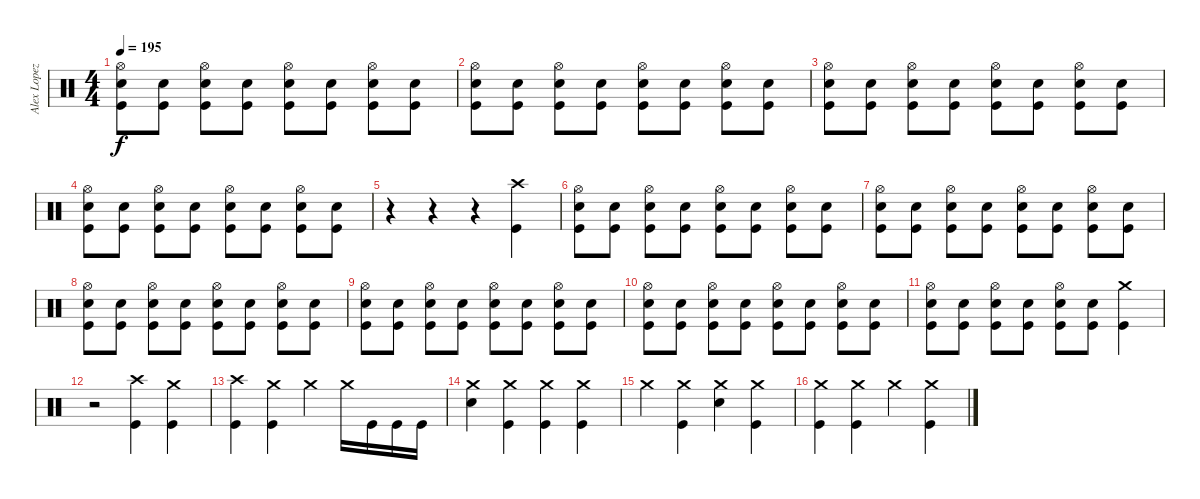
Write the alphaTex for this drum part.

\track ("Alex Lopez" "Alex Lopez") {instrument percussion}
\staff {score}
\articulation defaults
\ts (4 4)
\tempo 195
\clef neutral
\ks c
("Hi-Hat (open)" "Electric Snare (hit)" "Kick (hit)").8{dy f} ("Electric Snare (hit)" "Kick (hit)").8 ("Hi-Hat (open)" "Electric Snare (hit)" "Kick (hit)").8 ("Electric Snare (hit)" "Kick (hit)").8 ("Hi-Hat (open)" "Electric Snare (hit)" "Kick (hit)").8 ("Electric Snare (hit)" "Kick (hit)").8 ("Hi-Hat (open)" "Electric Snare (hit)" "Kick (hit)").8 ("Electric Snare (hit)" "Kick (hit)").8 |
("Hi-Hat (open)" "Electric Snare (hit)" "Kick (hit)").8 ("Electric Snare (hit)" "Kick (hit)").8 ("Hi-Hat (open)" "Electric Snare (hit)" "Kick (hit)").8 ("Electric Snare (hit)" "Kick (hit)").8 ("Hi-Hat (open)" "Electric Snare (hit)" "Kick (hit)").8 ("Electric Snare (hit)" "Kick (hit)").8 ("Hi-Hat (open)" "Electric Snare (hit)" "Kick (hit)").8 ("Electric Snare (hit)" "Kick (hit)").8 |
("Hi-Hat (open)" "Electric Snare (hit)" "Kick (hit)").8 ("Electric Snare (hit)" "Kick (hit)").8 ("Hi-Hat (open)" "Electric Snare (hit)" "Kick (hit)").8 ("Electric Snare (hit)" "Kick (hit)").8 ("Hi-Hat (open)" "Electric Snare (hit)" "Kick (hit)").8 ("Electric Snare (hit)" "Kick (hit)").8 ("Hi-Hat (open)" "Electric Snare (hit)" "Kick (hit)").8 ("Electric Snare (hit)" "Kick (hit)").8 |
("Hi-Hat (open)" "Electric Snare (hit)" "Kick (hit)").8 ("Electric Snare (hit)" "Kick (hit)").8 ("Hi-Hat (open)" "Electric Snare (hit)" "Kick (hit)").8 ("Electric Snare (hit)" "Kick (hit)").8 ("Hi-Hat (open)" "Electric Snare (hit)" "Kick (hit)").8 ("Electric Snare (hit)" "Kick (hit)").8 ("Hi-Hat (open)" "Electric Snare (hit)" "Kick (hit)").8 ("Electric Snare (hit)" "Kick (hit)").8 |
r.4 r.4 r.4 ("Crash high (hit)" "Kick (hit)").4 |
("Hi-Hat (open)" "Electric Snare (hit)" "Kick (hit)").8 ("Electric Snare (hit)" "Kick (hit)").8 ("Hi-Hat (open)" "Electric Snare (hit)" "Kick (hit)").8 ("Electric Snare (hit)" "Kick (hit)").8 ("Hi-Hat (open)" "Electric Snare (hit)" "Kick (hit)").8 ("Electric Snare (hit)" "Kick (hit)").8 ("Hi-Hat (open)" "Electric Snare (hit)" "Kick (hit)").8 ("Electric Snare (hit)" "Kick (hit)").8 |
("Hi-Hat (open)" "Electric Snare (hit)" "Kick (hit)").8 ("Electric Snare (hit)" "Kick (hit)").8 ("Hi-Hat (open)" "Electric Snare (hit)" "Kick (hit)").8 ("Electric Snare (hit)" "Kick (hit)").8 ("Hi-Hat (open)" "Electric Snare (hit)" "Kick (hit)").8 ("Electric Snare (hit)" "Kick (hit)").8 ("Hi-Hat (open)" "Electric Snare (hit)" "Kick (hit)").8 ("Electric Snare (hit)" "Kick (hit)").8 |
("Hi-Hat (open)" "Electric Snare (hit)" "Kick (hit)").8 ("Electric Snare (hit)" "Kick (hit)").8 ("Hi-Hat (open)" "Electric Snare (hit)" "Kick (hit)").8 ("Electric Snare (hit)" "Kick (hit)").8 ("Hi-Hat (open)" "Electric Snare (hit)" "Kick (hit)").8 ("Electric Snare (hit)" "Kick (hit)").8 ("Hi-Hat (open)" "Electric Snare (hit)" "Kick (hit)").8 ("Electric Snare (hit)" "Kick (hit)").8 |
("Hi-Hat (open)" "Electric Snare (hit)" "Kick (hit)").8 ("Electric Snare (hit)" "Kick (hit)").8 ("Hi-Hat (open)" "Electric Snare (hit)" "Kick (hit)").8 ("Electric Snare (hit)" "Kick (hit)").8 ("Hi-Hat (open)" "Electric Snare (hit)" "Kick (hit)").8 ("Electric Snare (hit)" "Kick (hit)").8 ("Hi-Hat (open)" "Electric Snare (hit)" "Kick (hit)").8 ("Electric Snare (hit)" "Kick (hit)").8 |
("Hi-Hat (open)" "Electric Snare (hit)" "Kick (hit)").8 ("Electric Snare (hit)" "Kick (hit)").8 ("Hi-Hat (open)" "Electric Snare (hit)" "Kick (hit)").8 ("Electric Snare (hit)" "Kick (hit)").8 ("Hi-Hat (open)" "Electric Snare (hit)" "Kick (hit)").8 ("Electric Snare (hit)" "Kick (hit)").8 ("Hi-Hat (open)" "Electric Snare (hit)" "Kick (hit)").8 ("Electric Snare (hit)" "Kick (hit)").8 |
("Hi-Hat (open)" "Electric Snare (hit)" "Kick (hit)").8 ("Electric Snare (hit)" "Kick (hit)").8 ("Hi-Hat (open)" "Electric Snare (hit)" "Kick (hit)").8 ("Electric Snare (hit)" "Kick (hit)").8 ("Hi-Hat (open)" "Electric Snare (hit)" "Kick (hit)").8 ("Electric Snare (hit)" "Kick (hit)").8 ("Crash medium (hit)" "Kick (hit)").4 |
r.2 ("Crash high (hit)" "Kick (hit)").4 ("Crash medium (hit)" "Kick (hit)").4 |
("Crash high (hit)" "Kick (hit)").4 ("Crash medium (hit)" "Kick (hit)").4 "Crash medium (hit)".4 "Crash medium (hit)".16 "Kick (hit)".16 "Kick (hit)".16 "Kick (hit)".16 |
("Crash medium (hit)" "Electric Snare (hit)").4 ("Crash medium (hit)" "Kick (hit)").4 ("Crash medium (hit)" "Kick (hit)").4 ("Crash medium (hit)" "Kick (hit)").4 |
"Crash medium (hit)".4 ("Crash medium (hit)" "Kick (hit)").4 ("Crash medium (hit)" "Electric Snare (hit)").4 ("Crash medium (hit)" "Kick (hit)").4 |
("Crash medium (hit)" "Kick (hit)").4 ("Crash medium (hit)" "Kick (hit)").4 "Crash medium (hit)".4 ("Crash medium (hit)" "Kick (hit)").4
